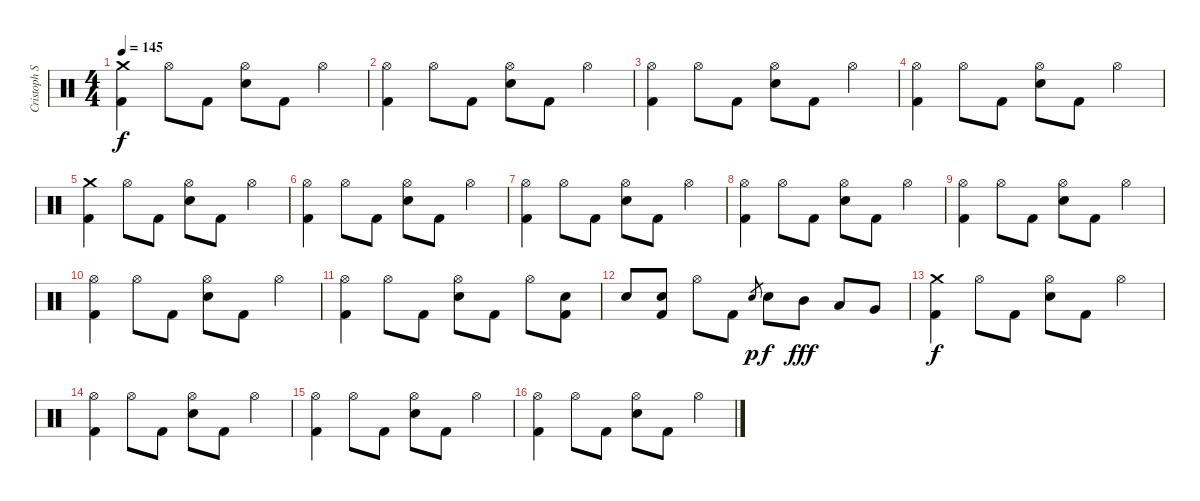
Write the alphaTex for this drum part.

\track ("Cristoph Schneider" "Cristoph S") {instrument percussion}
\staff {score}
\articulation defaults
\ts (4 4)
\tempo 145
\clef neutral
\ks c
("Kick (hit) 2" "Crash medium (hit)").4{dy f} "Hi-Hat (open)".8 "Kick (hit) 2".8 ("Hi-Hat (open)" "Snare (hit) 2").8 "Kick (hit) 2".8 "Hi-Hat (open)".4 |
("Kick (hit) 2" "Hi-Hat (open)").4 "Hi-Hat (open)".8 "Kick (hit) 2".8 ("Hi-Hat (open)" "Snare (hit) 2").8 "Kick (hit) 2".8 "Hi-Hat (open)".4 |
("Kick (hit) 2" "Hi-Hat (open)").4 "Hi-Hat (open)".8 "Kick (hit) 2".8 ("Hi-Hat (open)" "Snare (hit) 2").8 "Kick (hit) 2".8 "Hi-Hat (open)".4 |
("Kick (hit) 2" "Hi-Hat (open)").4 "Hi-Hat (open)".8 "Kick (hit) 2".8 ("Hi-Hat (open)" "Snare (hit) 2").8 "Kick (hit) 2".8 "Hi-Hat (open)".4 |
("Kick (hit) 2" "Crash medium (hit)").4 "Hi-Hat (open)".8 "Kick (hit) 2".8 ("Hi-Hat (open)" "Snare (hit) 2").8 "Kick (hit) 2".8 "Hi-Hat (open)".4 |
("Kick (hit) 2" "Hi-Hat (open)").4 "Hi-Hat (open)".8 "Kick (hit) 2".8 ("Hi-Hat (open)" "Snare (hit) 2").8 "Kick (hit) 2".8 "Hi-Hat (open)".4 |
("Kick (hit) 2" "Hi-Hat (open)").4 "Hi-Hat (open)".8 "Kick (hit) 2".8 ("Hi-Hat (open)" "Snare (hit) 2").8 "Kick (hit) 2".8 "Hi-Hat (open)".4 |
("Kick (hit) 2" "Hi-Hat (open)").4 "Hi-Hat (open)".8 "Kick (hit) 2".8 ("Hi-Hat (open)" "Snare (hit) 2").8 "Kick (hit) 2".8 "Hi-Hat (open)".4 |
("Kick (hit) 2" "Hi-Hat (open)").4 "Hi-Hat (open)".8 "Kick (hit) 2".8 ("Hi-Hat (open)" "Snare (hit) 2").8 "Kick (hit) 2".8 "Hi-Hat (open)".4 |
("Kick (hit) 2" "Hi-Hat (open)").4 "Hi-Hat (open)".8 "Kick (hit) 2".8 ("Hi-Hat (open)" "Snare (hit) 2").8 "Kick (hit) 2".8 "Hi-Hat (open)".4 |
("Kick (hit) 2" "Hi-Hat (open)").4 "Hi-Hat (open)".8 "Kick (hit) 2".8 ("Hi-Hat (open)" "Snare (hit) 2").8 "Kick (hit) 2".8 "Hi-Hat (open)".8 ("Kick (hit) 2" "Electric Snare (hit)").8 |
"Snare (hit) 2".8 ("Kick (hit) 2" "Electric Snare (hit)").8 "Hi-Hat (open)".8 "Kick (hit) 2".8 "Snare (hit) 2".8{gr dy p} "Snare (hit) 2".8{dy f} "Mid Tom (hit)".8{dy fff} "Low Tom (hit)".8 "Very Low Tom (hit)".8 |
("Kick (hit) 2" "Crash medium (hit)").4{dy f} "Hi-Hat (open)".8 "Kick (hit) 2".8 ("Hi-Hat (open)" "Snare (hit) 2").8 "Kick (hit) 2".8 "Hi-Hat (open)".4 |
("Kick (hit) 2" "Hi-Hat (open)").4 "Hi-Hat (open)".8 "Kick (hit) 2".8 ("Hi-Hat (open)" "Snare (hit) 2").8 "Kick (hit) 2".8 "Hi-Hat (open)".4 |
("Kick (hit) 2" "Hi-Hat (open)").4 "Hi-Hat (open)".8 "Kick (hit) 2".8 ("Hi-Hat (open)" "Snare (hit) 2").8 "Kick (hit) 2".8 "Hi-Hat (open)".4 |
("Kick (hit) 2" "Hi-Hat (open)").4 "Hi-Hat (open)".8 "Kick (hit) 2".8 ("Hi-Hat (open)" "Snare (hit) 2").8 "Kick (hit) 2".8 "Hi-Hat (open)".4
